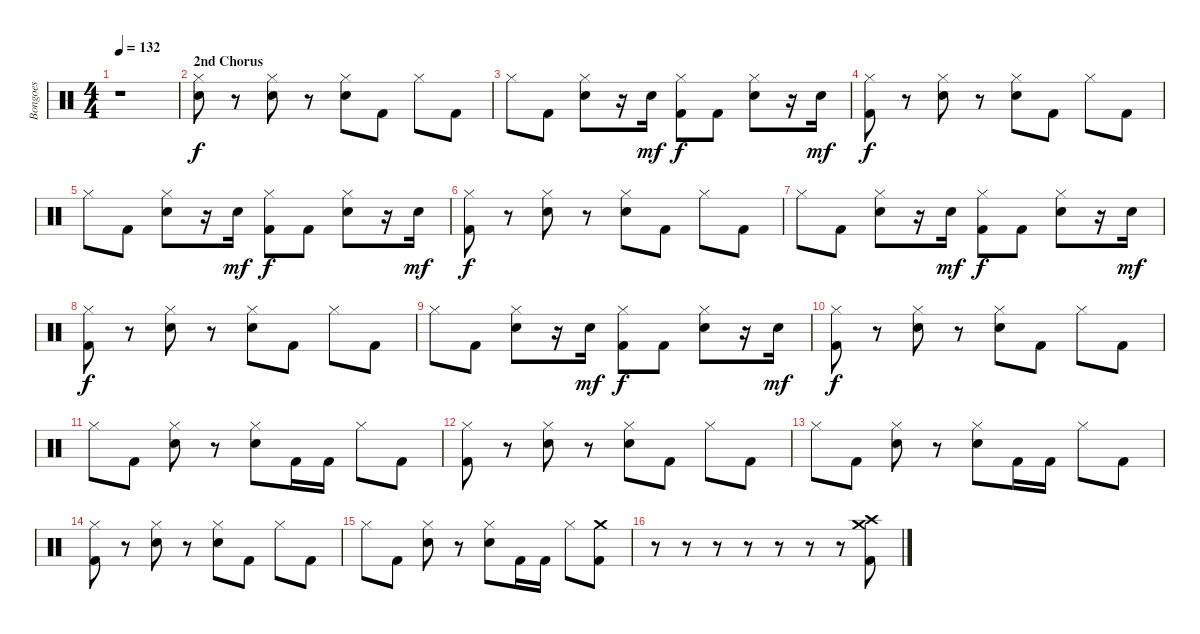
\track ("Bongoes" "Bongoes") {instrument percussion}
\staff {score}
\articulation defaults
\ts (4 4)
\tempo 132
\clef neutral
\ks c
r.1{dy f} |
\section ("" "2nd Chorus")
("Hi-Hat (closed)" "Snare (hit) 2").8 r.8 ("Hi-Hat (closed)" "Snare (hit) 2").8 r.8 ("Hi-Hat (closed)" "Snare (hit) 2").8 "Kick (hit) 2".8 "Hi-Hat (closed)".8 "Kick (hit) 2".8 |
"Hi-Hat (closed)".8 "Kick (hit) 2".8 ("Hi-Hat (closed)" "Snare (hit) 2").8 r.16 "Snare (hit) 2".16{dy mf} ("Hi-Hat (closed)" "Kick (hit) 2").8{dy f} "Kick (hit) 2".8 ("Hi-Hat (closed)" "Snare (hit) 2").8 r.16 "Snare (hit) 2".16{dy mf} |
("Hi-Hat (closed)" "Kick (hit) 2").8{dy f} r.8 ("Hi-Hat (closed)" "Snare (hit) 2").8 r.8 ("Hi-Hat (closed)" "Snare (hit) 2").8 "Kick (hit) 2".8 "Hi-Hat (closed)".8 "Kick (hit) 2".8 |
"Hi-Hat (closed)".8 "Kick (hit) 2".8 ("Hi-Hat (closed)" "Snare (hit) 2").8 r.16 "Snare (hit) 2".16{dy mf} ("Hi-Hat (closed)" "Kick (hit) 2").8{dy f} "Kick (hit) 2".8 ("Hi-Hat (closed)" "Snare (hit) 2").8 r.16 "Snare (hit) 2".16{dy mf} |
("Hi-Hat (closed)" "Kick (hit) 2").8{dy f} r.8 ("Hi-Hat (closed)" "Snare (hit) 2").8 r.8 ("Hi-Hat (closed)" "Snare (hit) 2").8 "Kick (hit) 2".8 "Hi-Hat (closed)".8 "Kick (hit) 2".8 |
"Hi-Hat (closed)".8 "Kick (hit) 2".8 ("Hi-Hat (closed)" "Snare (hit) 2").8 r.16 "Snare (hit) 2".16{dy mf} ("Hi-Hat (closed)" "Kick (hit) 2").8{dy f} "Kick (hit) 2".8 ("Hi-Hat (closed)" "Snare (hit) 2").8 r.16 "Snare (hit) 2".16{dy mf} |
("Hi-Hat (closed)" "Kick (hit) 2").8{dy f} r.8 ("Hi-Hat (closed)" "Snare (hit) 2").8 r.8 ("Hi-Hat (closed)" "Snare (hit) 2").8 "Kick (hit) 2".8 "Hi-Hat (closed)".8 "Kick (hit) 2".8 |
"Hi-Hat (closed)".8 "Kick (hit) 2".8 ("Hi-Hat (closed)" "Snare (hit) 2").8 r.16 "Snare (hit) 2".16{dy mf} ("Hi-Hat (closed)" "Kick (hit) 2").8{dy f} "Kick (hit) 2".8 ("Hi-Hat (closed)" "Snare (hit) 2").8 r.16 "Snare (hit) 2".16{dy mf} |
("Hi-Hat (closed)" "Kick (hit) 2").8{dy f} r.8 ("Hi-Hat (closed)" "Snare (hit) 2").8 r.8 ("Hi-Hat (closed)" "Snare (hit) 2").8 "Kick (hit) 2".8 "Hi-Hat (closed)".8 "Kick (hit) 2".8 |
"Hi-Hat (closed)".8 "Kick (hit) 2".8 ("Hi-Hat (closed)" "Snare (hit) 2").8 r.8 ("Hi-Hat (closed)" "Snare (hit) 2").8 "Kick (hit) 2".16 "Kick (hit) 2".16 "Hi-Hat (closed)".8 "Kick (hit) 2".8 |
("Hi-Hat (closed)" "Kick (hit) 2").8 r.8 ("Hi-Hat (closed)" "Snare (hit) 2").8 r.8 ("Hi-Hat (closed)" "Snare (hit) 2").8 "Kick (hit) 2".8 "Hi-Hat (closed)".8 "Kick (hit) 2".8 |
"Hi-Hat (closed)".8 "Kick (hit) 2".8 ("Hi-Hat (closed)" "Snare (hit) 2").8 r.8 ("Hi-Hat (closed)" "Snare (hit) 2").8 "Kick (hit) 2".16 "Kick (hit) 2".16 "Hi-Hat (closed)".8 "Kick (hit) 2".8 |
("Hi-Hat (closed)" "Kick (hit) 2").8 r.8 ("Hi-Hat (closed)" "Snare (hit) 2").8 r.8 ("Hi-Hat (closed)" "Snare (hit) 2").8 "Kick (hit) 2".8 "Hi-Hat (closed)".8 "Kick (hit) 2".8 |
"Hi-Hat (closed)".8 "Kick (hit) 2".8 ("Hi-Hat (closed)" "Snare (hit) 2").8 r.8 ("Hi-Hat (closed)" "Snare (hit) 2").8 "Kick (hit) 2".16 "Kick (hit) 2".16 "Hi-Hat (closed)".8 ("Crash medium (hit)" "Kick (hit) 2").8 |
r.8 r.8 r.8 r.8 r.8 r.8 r.8 ("Crash medium (hit)" "Kick (hit) 2" "Crash high (hit)").8
